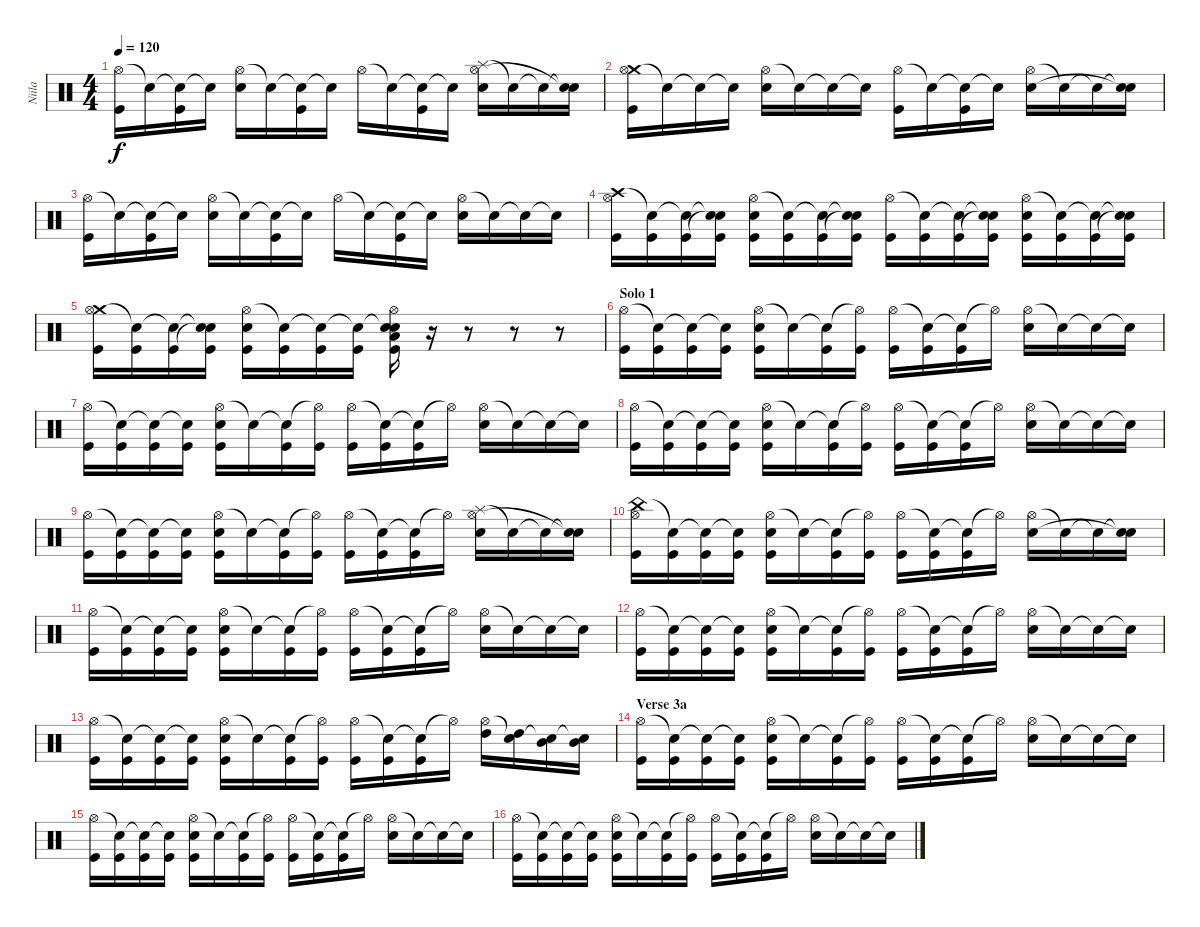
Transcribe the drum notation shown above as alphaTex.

\track ("Niila" "Niila") {instrument percussion}
\staff {score}
\articulation defaults
\ts (4 4)
\tempo 120
\clef neutral
\ks c
("Hi-Hat (open)" "Kick (hit)").16{dy f} "Snare (hit)"{t}.16 ("Snare (hit)"{t} "Kick (hit)").16 "Snare (hit)"{t}.16 ("Hi-Hat (open)" "Snare (hit) 2").16 "Snare (hit)"{t}.16 ("Snare (hit)"{t} "Kick (hit)").16 "Snare (hit)"{t}.16 "Hi-Hat (open)".16 "Snare (hit)"{t}.16 ("Snare (hit)"{t} "Kick (hit)").16 "Snare (hit)"{t}.16 ("Splash (hit)" "Hi-Hat (open)" "Snare (hit) 2").16 "Snare (hit)"{t}.16 "Snare (hit)"{t}.16 ("Snare (hit)"{t} "Snare (hit)"{t}).16 |
("Crash medium (hit)" "Hi-Hat (open)" "Kick (hit)").16 "Snare (hit)"{t}.16 "Snare (hit)"{t}.16 "Snare (hit)"{t}.16 ("Hi-Hat (open)" "Snare (hit) 2").16 "Snare (hit)"{t}.16 "Snare (hit)"{t}.16 "Snare (hit)"{t}.16 ("Hi-Hat (open)" "Kick (hit)").16 "Snare (hit)"{t}.16 ("Snare (hit)"{t} "Kick (hit)").16 "Snare (hit)"{t}.16 ("Hi-Hat (open)" "Snare (hit) 2").16 "Snare (hit)"{t}.16 "Snare (hit)"{t}.16 ("Snare (hit)"{t} "Snare (hit)"{t}).16 |
("Hi-Hat (open)" "Kick (hit)").16 "Snare (hit)"{t}.16 ("Snare (hit)"{t} "Kick (hit)").16 "Snare (hit)"{t}.16 ("Hi-Hat (open)" "Snare (hit) 2").16 "Snare (hit)"{t}.16 ("Snare (hit)"{t} "Kick (hit)").16 "Snare (hit)"{t}.16 "Hi-Hat (open)".16 "Snare (hit)"{t}.16 ("Snare (hit)"{t} "Kick (hit)").16 "Snare (hit)"{t}.16 ("Hi-Hat (open)" "Snare (hit) 2").16 "Snare (hit)"{t}.16 "Snare (hit)"{t}.16 "Snare (hit)"{t}.16 |
("Crash high (hit)" "Hi-Hat (open)" "Kick (hit)").16 ("Snare (hit)"{t} "Kick (hit)").16 ("Snare (hit)"{t} "Kick (hit)").16 ("Snare (hit)"{t} "Snare (hit)"{t} "Kick (hit)").16 ("Hi-Hat (open)" "Snare (hit) 2" "Kick (hit)").16 ("Snare (hit)"{t} "Kick (hit)").16 ("Snare (hit)"{t} "Kick (hit)").16 ("Snare (hit)"{t} "Snare (hit)"{t} "Kick (hit)").16 ("Hi-Hat (open)" "Kick (hit)").16 ("Snare (hit)"{t} "Kick (hit)").16 ("Snare (hit)"{t} "Kick (hit)").16 ("Snare (hit)"{t} "Snare (hit)"{t} "Kick (hit)").16 ("Hi-Hat (open)" "Snare (hit) 2" "Kick (hit)").16 ("Snare (hit)"{t} "Kick (hit)").16 ("Snare (hit)"{t} "Kick (hit)").16 ("Snare (hit)"{t} "Snare (hit)"{t} "Kick (hit)").16 |
("Crash medium (hit)" "Hi-Hat (open)" "Kick (hit)").16 ("Snare (hit)"{t} "Kick (hit)").16 ("Snare (hit)"{t} "Kick (hit)").16 ("Snare (hit)"{t} "Snare (hit)"{t} "Kick (hit)").16 ("Hi-Hat (open)" "Snare (hit) 2" "Kick (hit)").16 ("Snare (hit)"{t} "Kick (hit)").16 ("Snare (hit)"{t} "Kick (hit)").16 ("Snare (hit)"{t} "Kick (hit)").16 ("Snare (hit)"{t} "Hi-Hat (open)" "Low Tom (hit)" "Snare (hit) 2" "Kick (hit)").16 r.16 r.8 r.8 r.8 |
\section ("" "Solo 1")
("Hi-Hat (open)" "Kick (hit)").16 ("Snare (hit)"{t} "Kick (hit)").16 ("Snare (hit)"{t} "Kick (hit)").16 ("Snare (hit)"{t} "Kick (hit)").16 ("Hi-Hat (open)" "Snare (hit) 2" "Kick (hit)").16 "Snare (hit)"{t}.16 ("Snare (hit)"{t} "Kick (hit)").16 ("Hi-Hat (open)"{t} "Kick (hit)").16 ("Hi-Hat (open)" "Kick (hit)").16 ("Snare (hit)"{t} "Kick (hit)").16 ("Snare (hit)"{t} "Kick (hit)").16 "Hi-Hat (open)"{t}.16 ("Hi-Hat (open)" "Snare (hit) 2").16 "Snare (hit)"{t}.16 "Snare (hit)"{t}.16 "Snare (hit)"{t}.16 |
("Hi-Hat (open)" "Kick (hit)").16 ("Snare (hit)"{t} "Kick (hit)").16 ("Snare (hit)"{t} "Kick (hit)").16 ("Snare (hit)"{t} "Kick (hit)").16 ("Hi-Hat (open)" "Snare (hit) 2" "Kick (hit)").16 "Snare (hit)"{t}.16 ("Snare (hit)"{t} "Kick (hit)").16 ("Hi-Hat (open)"{t} "Kick (hit)").16 ("Hi-Hat (open)" "Kick (hit)").16 ("Snare (hit)"{t} "Kick (hit)").16 ("Snare (hit)"{t} "Kick (hit)").16 "Hi-Hat (open)"{t}.16 ("Hi-Hat (open)" "Snare (hit) 2").16 "Snare (hit)"{t}.16 "Snare (hit)"{t}.16 "Snare (hit)"{t}.16 |
("Hi-Hat (open)" "Kick (hit)").16 ("Snare (hit)"{t} "Kick (hit)").16 ("Snare (hit)"{t} "Kick (hit)").16 ("Snare (hit)"{t} "Kick (hit)").16 ("Hi-Hat (open)" "Snare (hit) 2" "Kick (hit)").16 "Snare (hit)"{t}.16 ("Snare (hit)"{t} "Kick (hit)").16 ("Hi-Hat (open)"{t} "Kick (hit)").16 ("Hi-Hat (open)" "Kick (hit)").16 ("Snare (hit)"{t} "Kick (hit)").16 ("Snare (hit)"{t} "Kick (hit)").16 "Hi-Hat (open)"{t}.16 ("Hi-Hat (open)" "Snare (hit) 2").16 "Snare (hit)"{t}.16 "Snare (hit)"{t}.16 "Snare (hit)"{t}.16 |
("Hi-Hat (open)" "Kick (hit)").16 ("Snare (hit)"{t} "Kick (hit)").16 ("Snare (hit)"{t} "Kick (hit)").16 ("Snare (hit)"{t} "Kick (hit)").16 ("Hi-Hat (open)" "Snare (hit) 2" "Kick (hit)").16 "Snare (hit)"{t}.16 ("Snare (hit)"{t} "Kick (hit)").16 ("Hi-Hat (open)"{t} "Kick (hit)").16 ("Hi-Hat (open)" "Kick (hit)").16 ("Snare (hit)"{t} "Kick (hit)").16 ("Snare (hit)"{t} "Kick (hit)").16 "Hi-Hat (open)"{t}.16 ("Splash (hit)" "Hi-Hat (open)" "Snare (hit) 2").16 "Snare (hit)"{t}.16 "Snare (hit)"{t}.16 ("Snare (hit)"{t} "Snare (hit)"{t}).16 |
("China (hit)" "Hi-Hat (open)" "Kick (hit)").16 ("Snare (hit)"{t} "Kick (hit)").16 ("Snare (hit)"{t} "Kick (hit)").16 ("Snare (hit)"{t} "Kick (hit)").16 ("Hi-Hat (open)" "Snare (hit) 2" "Kick (hit)").16 "Snare (hit)"{t}.16 ("Snare (hit)"{t} "Kick (hit)").16 ("Hi-Hat (open)"{t} "Kick (hit)").16 ("Hi-Hat (open)" "Kick (hit)").16 ("Snare (hit)"{t} "Kick (hit)").16 ("Snare (hit)"{t} "Kick (hit)").16 "Hi-Hat (open)"{t}.16 ("Hi-Hat (open)" "Snare (hit) 2").16 "Snare (hit)"{t}.16 "Snare (hit)"{t}.16 ("Snare (hit)"{t} "Snare (hit)"{t}).16 |
("Hi-Hat (open)" "Kick (hit)").16 ("Snare (hit)"{t} "Kick (hit)").16 ("Snare (hit)"{t} "Kick (hit)").16 ("Snare (hit)"{t} "Kick (hit)").16 ("Hi-Hat (open)" "Snare (hit) 2" "Kick (hit)").16 "Snare (hit)"{t}.16 ("Snare (hit)"{t} "Kick (hit)").16 ("Hi-Hat (open)"{t} "Kick (hit)").16 ("Hi-Hat (open)" "Kick (hit)").16 ("Snare (hit)"{t} "Kick (hit)").16 ("Snare (hit)"{t} "Kick (hit)").16 "Hi-Hat (open)"{t}.16 ("Hi-Hat (open)" "Snare (hit) 2").16 "Snare (hit)"{t}.16 "Snare (hit)"{t}.16 "Snare (hit)"{t}.16 |
("Hi-Hat (open)" "Kick (hit)").16 ("Snare (hit)"{t} "Kick (hit)").16 ("Snare (hit)"{t} "Kick (hit)").16 ("Snare (hit)"{t} "Kick (hit)").16 ("Hi-Hat (open)" "Snare (hit) 2" "Kick (hit)").16 "Snare (hit)"{t}.16 ("Snare (hit)"{t} "Kick (hit)").16 ("Hi-Hat (open)"{t} "Kick (hit)").16 ("Hi-Hat (open)" "Kick (hit)").16 ("Snare (hit)"{t} "Kick (hit)").16 ("Snare (hit)"{t} "Kick (hit)").16 "Hi-Hat (open)"{t}.16 ("Hi-Hat (open)" "Snare (hit) 2").16 "Snare (hit)"{t}.16 "Snare (hit)"{t}.16 "Snare (hit)"{t}.16 |
("Hi-Hat (open)" "Kick (hit)").16 ("Snare (hit)"{t} "Kick (hit)").16 ("Snare (hit)"{t} "Kick (hit)").16 ("Snare (hit)"{t} "Kick (hit)").16 ("Hi-Hat (open)" "Snare (hit) 2" "Kick (hit)").16 "Snare (hit)"{t}.16 ("Snare (hit)"{t} "Kick (hit)").16 ("Hi-Hat (open)"{t} "Kick (hit)").16 ("Hi-Hat (open)" "Kick (hit)").16 ("Snare (hit)"{t} "Kick (hit)").16 ("Snare (hit)"{t} "Kick (hit)").16 "Hi-Hat (open)"{t}.16 ("Hi-Hat (open)" "High Tom (hit)").16 ("Snare (hit)"{t} "High Tom (hit)").16 ("Snare (hit)"{t} "Mid Tom (hit)").16 ("Snare (hit)"{t} "Mid Tom (hit)").16 |
\section ("" "Verse 3a")
("Hi-Hat (open)" "Kick (hit)").16 ("Snare (hit)"{t} "Kick (hit)").16 ("Snare (hit)"{t} "Kick (hit)").16 ("Snare (hit)"{t} "Kick (hit)").16 ("Hi-Hat (open)" "Snare (hit) 2" "Kick (hit)").16 "Snare (hit)"{t}.16 ("Snare (hit)"{t} "Kick (hit)").16 ("Hi-Hat (open)"{t} "Kick (hit)").16 ("Hi-Hat (open)" "Kick (hit)").16 ("Snare (hit)"{t} "Kick (hit)").16 ("Snare (hit)"{t} "Kick (hit)").16 "Hi-Hat (open)"{t}.16 ("Hi-Hat (open)" "Snare (hit) 2").16 "Snare (hit)"{t}.16 "Snare (hit)"{t}.16 "Snare (hit)"{t}.16 |
("Hi-Hat (open)" "Kick (hit)").16 ("Snare (hit)"{t} "Kick (hit)").16 ("Snare (hit)"{t} "Kick (hit)").16 ("Snare (hit)"{t} "Kick (hit)").16 ("Hi-Hat (open)" "Snare (hit) 2" "Kick (hit)").16 "Snare (hit)"{t}.16 ("Snare (hit)"{t} "Kick (hit)").16 ("Hi-Hat (open)"{t} "Kick (hit)").16 ("Hi-Hat (open)" "Kick (hit)").16 ("Snare (hit)"{t} "Kick (hit)").16 ("Snare (hit)"{t} "Kick (hit)").16 "Hi-Hat (open)"{t}.16 ("Hi-Hat (open)" "Snare (hit) 2").16 "Snare (hit)"{t}.16 "Snare (hit)"{t}.16 "Snare (hit)"{t}.16 |
("Hi-Hat (open)" "Kick (hit)").16 ("Snare (hit)"{t} "Kick (hit)").16 ("Snare (hit)"{t} "Kick (hit)").16 ("Snare (hit)"{t} "Kick (hit)").16 ("Hi-Hat (open)" "Snare (hit) 2" "Kick (hit)").16 "Snare (hit)"{t}.16 ("Snare (hit)"{t} "Kick (hit)").16 ("Hi-Hat (open)"{t} "Kick (hit)").16 ("Hi-Hat (open)" "Kick (hit)").16 ("Snare (hit)"{t} "Kick (hit)").16 ("Snare (hit)"{t} "Kick (hit)").16 "Hi-Hat (open)"{t}.16 ("Hi-Hat (open)" "Snare (hit) 2").16 "Snare (hit)"{t}.16 "Snare (hit)"{t}.16 "Snare (hit)"{t}.16
